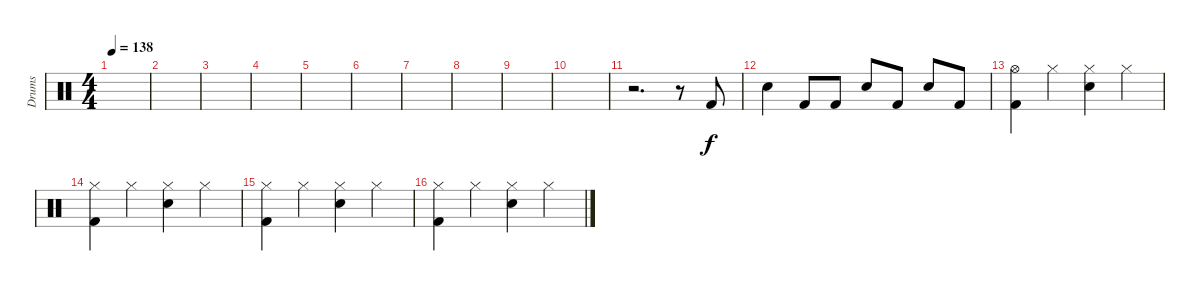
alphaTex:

\track ("Drums" "Drums") {instrument percussion}
\staff {score}
\articulation defaults
\ts (4 4)
\tempo 138
\clef neutral
\ks c
|
|
|
|
|
|
|
|
|
|
r.2{d} r.8 "Kick (hit) 2".8 |
"Snare (hit) 2".4 "Kick (hit) 2".8 "Kick (hit) 2".8 "Snare (hit) 2".8 "Kick (hit) 2".8 "Snare (hit) 2".8 "Kick (hit) 2".8 |
("Hi-Hat (open)" "Kick (hit) 2").4 "Hi-Hat (closed)".4 ("Hi-Hat (closed)" "Snare (hit) 2").4 "Hi-Hat (closed)".4 |
("Hi-Hat (closed)" "Kick (hit) 2").4 "Hi-Hat (closed)".4 ("Hi-Hat (closed)" "Snare (hit) 2").4 "Hi-Hat (closed)".4 |
("Hi-Hat (closed)" "Kick (hit) 2").4 "Hi-Hat (closed)".4 ("Hi-Hat (closed)" "Snare (hit) 2").4 "Hi-Hat (closed)".4 |
("Hi-Hat (closed)" "Kick (hit) 2").4 "Hi-Hat (closed)".4 ("Hi-Hat (closed)" "Snare (hit) 2").4 "Hi-Hat (closed)".4
